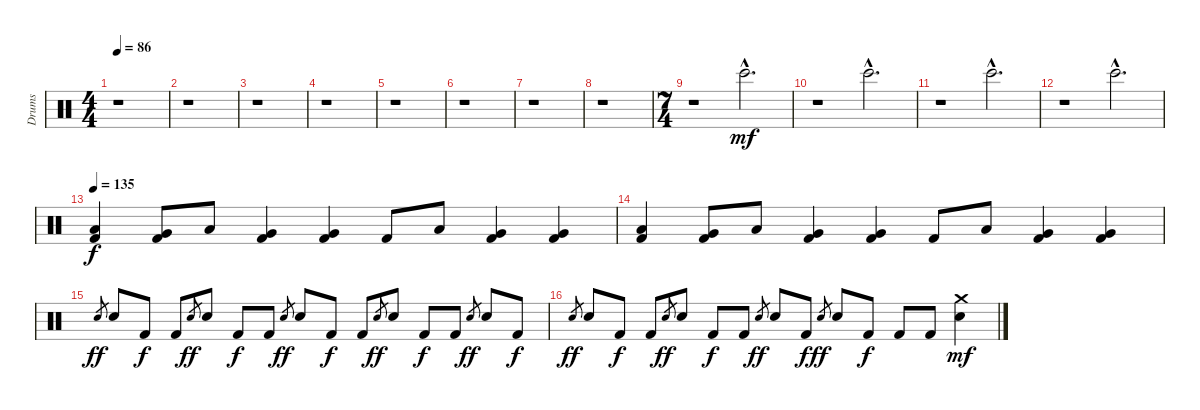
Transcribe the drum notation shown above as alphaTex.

\track ("Drums" "Drums") {instrument percussion}
\staff {score}
\articulation defaults
\ts (4 4)
\tempo 86
\clef neutral
\ks c
r.1{dy mf} |
r.1 |
r.1 |
r.1 |
r.1 |
r.1 |
r.1 |
r.1 |
\ts (7 4)
r.1 "Bongo High (hit)"{hac}.2{d} |
r.1 "Bongo High (hit)"{hac}.2{d} |
r.1 "Bongo High (hit)"{hac}.2{d} |
r.1 "Bongo High (hit)"{hac}.2{d} |
\tempo 135
("Kick (hit) 2" "Low Floor Tom (hit)").4{dy f} ("Kick (hit) 2" "Very Low Tom (hit)").8 "Low Floor Tom (hit)".8 ("Kick (hit) 2" "Very Low Tom (hit)").4 ("Kick (hit) 2" "Very Low Tom (hit)").4 "Kick (hit) 2".8 "Low Floor Tom (hit)".8 ("Kick (hit) 2" "Very Low Tom (hit)").4 ("Kick (hit) 2" "Very Low Tom (hit)").4 |
("Kick (hit) 2" "Low Floor Tom (hit)").4 ("Kick (hit) 2" "Very Low Tom (hit)").8 "Low Floor Tom (hit)".8 ("Kick (hit) 2" "Very Low Tom (hit)").4 ("Kick (hit) 2" "Very Low Tom (hit)").4 "Kick (hit) 2".8 "Low Floor Tom (hit)".8 ("Kick (hit) 2" "Very Low Tom (hit)").4 ("Kick (hit) 2" "Very Low Tom (hit)").4 |
"Electric Snare (hit)".8{gr dy ff} "Electric Snare (hit)".8 "Kick (hit) 2".8{dy f} "Kick (hit) 2".8 "Electric Snare (hit)".8{gr dy ff} "Electric Snare (hit)".8 "Kick (hit) 2".8{dy f} "Kick (hit) 2".8 "Electric Snare (hit)".8{gr dy ff} "Electric Snare (hit)".8 "Kick (hit) 2".8{dy f} "Kick (hit) 2".8 "Electric Snare (hit)".8{gr dy ff} "Electric Snare (hit)".8 "Kick (hit) 2".8{dy f} "Kick (hit) 2".8 "Electric Snare (hit)".8{gr dy ff} "Electric Snare (hit)".8 "Kick (hit) 2".8{dy f} |
"Electric Snare (hit)".8{gr dy ff} "Electric Snare (hit)".8 "Kick (hit) 2".8{dy f} "Kick (hit) 2".8 "Electric Snare (hit)".8{gr dy ff} "Electric Snare (hit)".8 "Kick (hit) 2".8{dy f} "Kick (hit) 2".8 "Electric Snare (hit)".8{gr dy ff} "Electric Snare (hit)".8 "Kick (hit) 2".8{dy f} "Electric Snare (hit)".8{gr dy ff} "Electric Snare (hit)".8 "Kick (hit) 2".8{dy f} "Kick (hit) 2".8 "Kick (hit) 2".8 ("Electric Snare (hit)" "Crash medium (hit)").4{dy mf}
